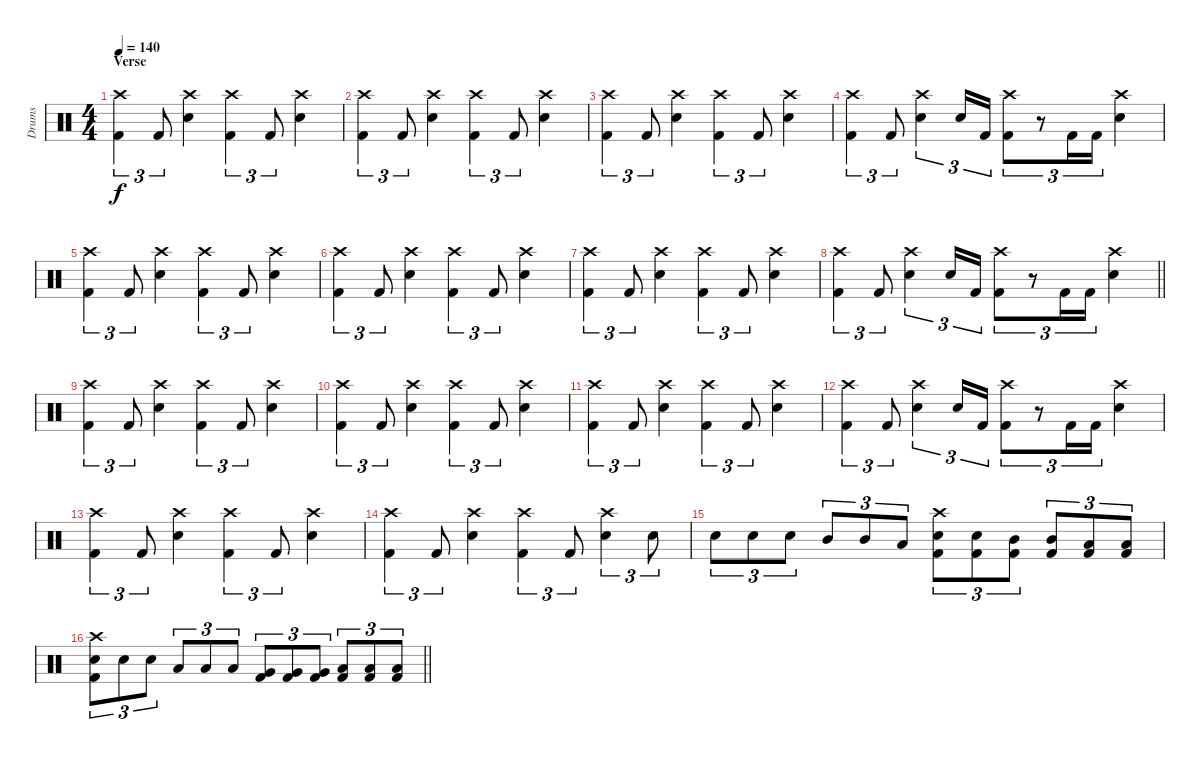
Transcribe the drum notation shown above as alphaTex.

\track ("Drums" "Drums") {instrument percussion}
\staff {score}
\articulation defaults
\ts (4 4)
\section ("" "Verse")
\tempo 140
\clef neutral
\ks c
("Crash high (hit)" "Kick (hit) 2").4{tu (3 2) dy f} "Kick (hit) 2".8{tu (3 2)} ("Crash high (hit)" "Snare (hit) 2").4 ("Crash high (hit)" "Kick (hit) 2").4{tu (3 2)} "Kick (hit) 2".8{tu (3 2)} ("Crash high (hit)" "Snare (hit) 2").4 |
("Crash high (hit)" "Kick (hit) 2").4{tu (3 2)} "Kick (hit) 2".8{tu (3 2)} ("Crash high (hit)" "Snare (hit) 2").4 ("Crash high (hit)" "Kick (hit) 2").4{tu (3 2)} "Kick (hit) 2".8{tu (3 2)} ("Crash high (hit)" "Snare (hit) 2").4 |
("Crash high (hit)" "Kick (hit) 2").4{tu (3 2)} "Kick (hit) 2".8{tu (3 2)} ("Crash high (hit)" "Snare (hit) 2").4 ("Crash high (hit)" "Kick (hit) 2").4{tu (3 2)} "Kick (hit) 2".8{tu (3 2)} ("Crash high (hit)" "Snare (hit) 2").4 |
("Crash high (hit)" "Kick (hit) 2").4{tu (3 2)} "Kick (hit) 2".8{tu (3 2)} ("Crash high (hit)" "Snare (hit) 2").4{tu (3 2)} "Snare (hit) 2".16{tu (3 2)} "Kick (hit) 2".16{tu (3 2)} ("Crash high (hit)" "Kick (hit) 2").8{tu (3 2)} r.8{tu (3 2)} "Kick (hit) 2".16{tu (3 2)} "Kick (hit) 2".16{tu (3 2)} ("Crash high (hit)" "Snare (hit) 2").4 |
("Crash high (hit)" "Kick (hit) 2").4{tu (3 2)} "Kick (hit) 2".8{tu (3 2)} ("Crash high (hit)" "Snare (hit) 2").4 ("Crash high (hit)" "Kick (hit) 2").4{tu (3 2)} "Kick (hit) 2".8{tu (3 2)} ("Crash high (hit)" "Snare (hit) 2").4 |
("Crash high (hit)" "Kick (hit) 2").4{tu (3 2)} "Kick (hit) 2".8{tu (3 2)} ("Crash high (hit)" "Snare (hit) 2").4 ("Crash high (hit)" "Kick (hit) 2").4{tu (3 2)} "Kick (hit) 2".8{tu (3 2)} ("Crash high (hit)" "Snare (hit) 2").4 |
("Crash high (hit)" "Kick (hit) 2").4{tu (3 2)} "Kick (hit) 2".8{tu (3 2)} ("Crash high (hit)" "Snare (hit) 2").4 ("Crash high (hit)" "Kick (hit) 2").4{tu (3 2)} "Kick (hit) 2".8{tu (3 2)} ("Crash high (hit)" "Snare (hit) 2").4 |
\barLineRight lightlight
("Crash high (hit)" "Kick (hit) 2").4{tu (3 2)} "Kick (hit) 2".8{tu (3 2)} ("Crash high (hit)" "Snare (hit) 2").4{tu (3 2)} "Snare (hit) 2".16{tu (3 2)} "Kick (hit) 2".16{tu (3 2)} ("Crash high (hit)" "Kick (hit) 2").8{tu (3 2)} r.8{tu (3 2)} "Kick (hit) 2".16{tu (3 2)} "Kick (hit) 2".16{tu (3 2)} ("Crash high (hit)" "Snare (hit) 2").4 |
("Crash high (hit)" "Kick (hit) 2").4{tu (3 2)} "Kick (hit) 2".8{tu (3 2)} ("Crash high (hit)" "Snare (hit) 2").4 ("Crash high (hit)" "Kick (hit) 2").4{tu (3 2)} "Kick (hit) 2".8{tu (3 2)} ("Crash high (hit)" "Snare (hit) 2").4 |
("Crash high (hit)" "Kick (hit) 2").4{tu (3 2)} "Kick (hit) 2".8{tu (3 2)} ("Crash high (hit)" "Snare (hit) 2").4 ("Crash high (hit)" "Kick (hit) 2").4{tu (3 2)} "Kick (hit) 2".8{tu (3 2)} ("Crash high (hit)" "Snare (hit) 2").4 |
("Crash high (hit)" "Kick (hit) 2").4{tu (3 2)} "Kick (hit) 2".8{tu (3 2)} ("Crash high (hit)" "Snare (hit) 2").4 ("Crash high (hit)" "Kick (hit) 2").4{tu (3 2)} "Kick (hit) 2".8{tu (3 2)} ("Crash high (hit)" "Snare (hit) 2").4 |
("Crash high (hit)" "Kick (hit) 2").4{tu (3 2)} "Kick (hit) 2".8{tu (3 2)} ("Crash high (hit)" "Snare (hit) 2").4{tu (3 2)} "Snare (hit) 2".16{tu (3 2)} "Kick (hit) 2".16{tu (3 2)} ("Crash high (hit)" "Kick (hit) 2").8{tu (3 2)} r.8{tu (3 2)} "Kick (hit) 2".16{tu (3 2)} "Kick (hit) 2".16{tu (3 2)} ("Crash high (hit)" "Snare (hit) 2").4 |
("Crash high (hit)" "Kick (hit) 2").4{tu (3 2)} "Kick (hit) 2".8{tu (3 2)} ("Crash high (hit)" "Snare (hit) 2").4 ("Crash high (hit)" "Kick (hit) 2").4{tu (3 2)} "Kick (hit) 2".8{tu (3 2)} ("Crash high (hit)" "Snare (hit) 2").4 |
("Crash high (hit)" "Kick (hit) 2").4{tu (3 2)} "Kick (hit) 2".8{tu (3 2)} ("Crash high (hit)" "Snare (hit) 2").4 ("Crash high (hit)" "Kick (hit) 2").4{tu (3 2)} "Kick (hit) 2".8{tu (3 2)} ("Crash high (hit)" "Snare (hit) 2").4{tu (3 2)} "Snare (hit) 2".8{tu (3 2)} |
"Snare (hit) 2".8{tu (3 2)} "Snare (hit) 2".8{tu (3 2)} "Snare (hit) 2".8{tu (3 2)} "Mid Tom (hit)".8{tu (3 2)} "Mid Tom (hit)".8{tu (3 2)} "Low Tom (hit)".8{tu (3 2)} ("Crash high (hit)" "Snare (hit) 2" "Kick (hit) 2").8{tu (3 2)} ("Snare (hit) 2" "Kick (hit) 2").8{tu (3 2)} ("Mid Tom (hit)" "Kick (hit) 2").8{tu (3 2)} ("Mid Tom (hit)" "Kick (hit) 2").8{tu (3 2)} ("Low Tom (hit)" "Kick (hit) 2").8{tu (3 2)} ("Low Tom (hit)" "Kick (hit) 2").8{tu (3 2)} |
\barLineRight lightlight
("Crash high (hit)" "Snare (hit) 2" "Kick (hit) 2").8{tu (3 2)} "Snare (hit) 2".8{tu (3 2)} "Snare (hit) 2".8{tu (3 2)} "Low Tom (hit)".8{tu (3 2)} "Low Tom (hit)".8{tu (3 2)} "Low Tom (hit)".8{tu (3 2)} ("Very Low Tom (hit)" "Kick (hit) 2").8{tu (3 2)} ("Very Low Tom (hit)" "Kick (hit) 2").8{tu (3 2)} ("Very Low Tom (hit)" "Kick (hit) 2").8{tu (3 2)} ("Low Floor Tom (hit)" "Kick (hit) 2").8{tu (3 2)} ("Low Floor Tom (hit)" "Kick (hit) 2").8{tu (3 2)} ("Low Floor Tom (hit)" "Kick (hit) 2").8{tu (3 2)}
